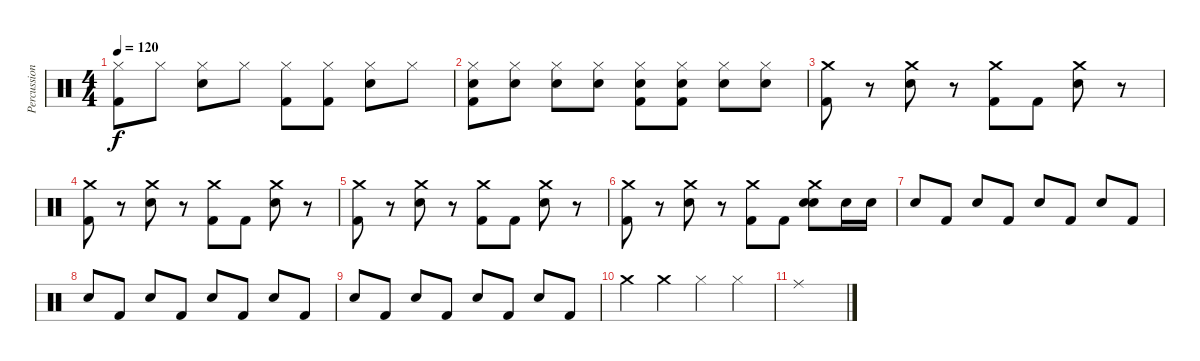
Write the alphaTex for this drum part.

\track ("Percussion" "Percussion") {instrument percussion}
\staff {score}
\articulation defaults
\ts (4 4)
\tempo 120
\clef neutral
\ks c
("Hi-Hat (closed)" "Kick (hit) 2").8{dy f} "Hi-Hat (closed)".8 ("Hi-Hat (closed)" "Snare (hit) 2").8 "Hi-Hat (closed)".8 ("Hi-Hat (closed)" "Kick (hit) 2").8 ("Hi-Hat (closed)" "Kick (hit) 2").8 ("Hi-Hat (closed)" "Snare (hit) 2").8 "Hi-Hat (closed)".8 |
("Hi-Hat (closed)" "Kick (hit) 2" "Snare (hit) 2").8 ("Hi-Hat (closed)" "Snare (hit) 2").8 ("Hi-Hat (closed)" "Snare (hit) 2").8 ("Hi-Hat (closed)" "Snare (hit) 2").8 ("Hi-Hat (closed)" "Kick (hit) 2" "Snare (hit) 2").8 ("Hi-Hat (closed)" "Kick (hit) 2" "Snare (hit) 2").8 ("Hi-Hat (closed)" "Snare (hit) 2").8 ("Hi-Hat (closed)" "Snare (hit) 2").8 |
("Kick (hit) 2" "Crash medium (hit)").8 r.8 ("Snare (hit) 2" "Crash medium (hit)").8 r.8 ("Kick (hit) 2" "Crash medium (hit)").8 "Kick (hit) 2".8 ("Snare (hit) 2" "Crash medium (hit)").8 r.8 |
("Kick (hit) 2" "Crash medium (hit)").8 r.8 ("Snare (hit) 2" "Crash medium (hit)").8 r.8 ("Kick (hit) 2" "Crash medium (hit)").8 "Kick (hit) 2".8 ("Snare (hit) 2" "Crash medium (hit)").8 r.8 |
("Kick (hit) 2" "Crash medium (hit)").8 r.8 ("Snare (hit) 2" "Crash medium (hit)").8 r.8 ("Kick (hit) 2" "Crash medium (hit)").8 "Kick (hit) 2".8 ("Snare (hit) 2" "Crash medium (hit)").8 r.8 |
("Kick (hit) 2" "Crash medium (hit)").8 r.8 ("Snare (hit) 2" "Crash medium (hit)").8 r.8 ("Kick (hit) 2" "Crash medium (hit)").8 "Kick (hit) 2".8 ("Snare (hit) 2" "Snare (hit) 2" "Crash medium (hit)").8 "Snare (hit) 2".16 "Snare (hit) 2".16 |
"Snare (hit) 2".8 "Kick (hit) 2".8 "Snare (hit) 2".8 "Kick (hit) 2".8 "Snare (hit) 2".8 "Kick (hit) 2".8 "Snare (hit) 2".8 "Kick (hit) 2".8 |
"Snare (hit) 2".8 "Kick (hit) 2".8 "Snare (hit) 2".8 "Kick (hit) 2".8 "Snare (hit) 2".8 "Kick (hit) 2".8 "Snare (hit) 2".8 "Kick (hit) 2".8 |
"Snare (hit) 2".8 "Kick (hit) 2".8 "Snare (hit) 2".8 "Kick (hit) 2".8 "Snare (hit) 2".8 "Kick (hit) 2".8 "Snare (hit) 2".8 "Kick (hit) 2".8 |
"Crash medium (hit)".4 "Crash medium (hit)".4 "Hi-Hat (closed)".4 "Hi-Hat (closed)".4 |
"Ride (middle)".1
